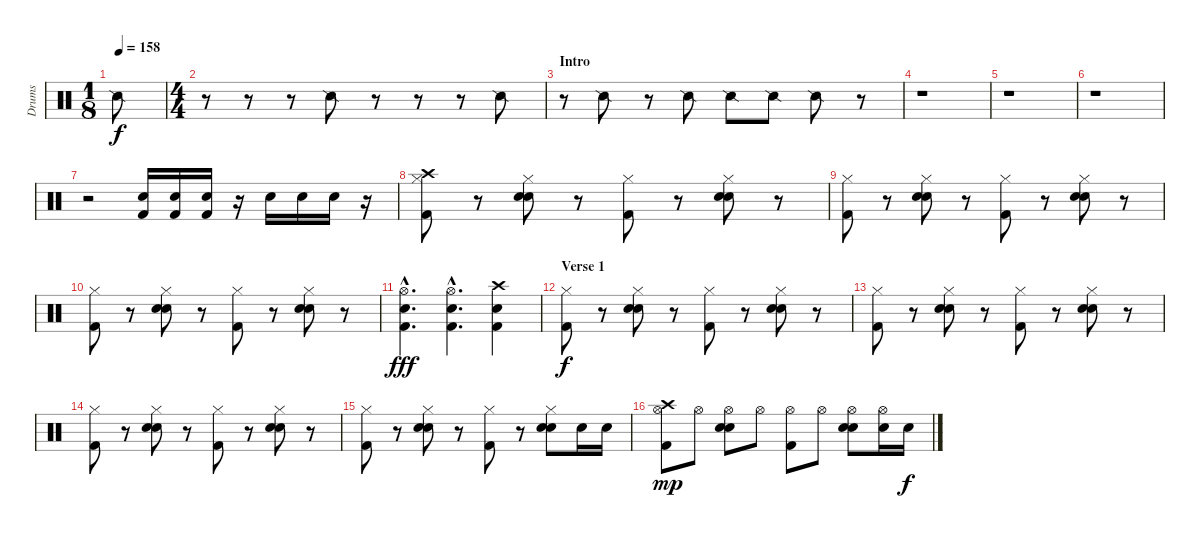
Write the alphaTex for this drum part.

\track ("Drums" "Drums") {instrument percussion}
\staff {score}
\articulation defaults
\ts (1 8)
\tempo 158
\clef neutral
\ks c "Snare (side stick) 2".8{dy f}
|
\ts (4 4)
r.8 r.8 r.8 "Snare (side stick) 2".8 r.8 r.8 r.8 "Snare (side stick) 2".8 |
\section ("" "Intro")
r.8 "Snare (side stick) 2".8 r.8 "Snare (side stick) 2".8 "Snare (side stick) 2".8 "Snare (side stick) 2".8 "Snare (side stick) 2".8 r.8 |
r.1 |
r.1 |
r.1 |
r.2 ("Snare (hit) 2" "Kick (hit) 2").16 ("Snare (hit) 2" "Kick (hit) 2").16 ("Snare (hit) 2" "Kick (hit) 2").16 r.16 "Electric Snare (hit)".16 "Electric Snare (hit)".16 "Electric Snare (hit)".16 r.16 |
("Hi-Hat (closed)" "Crash high (hit)" "Kick (hit) 2").8 r.8 ("Hi-Hat (closed)" "Electric Snare (hit)" "Snare (hit) 2").8 r.8 ("Hi-Hat (closed)" "Kick (hit) 2").8 r.8 ("Hi-Hat (closed)" "Electric Snare (hit)" "Snare (hit) 2").8 r.8 |
("Hi-Hat (closed)" "Kick (hit) 2").8 r.8 ("Hi-Hat (closed)" "Electric Snare (hit)" "Snare (hit) 2").8 r.8 ("Hi-Hat (closed)" "Kick (hit) 2").8 r.8 ("Hi-Hat (closed)" "Electric Snare (hit)" "Snare (hit) 2").8 r.8 |
("Hi-Hat (closed)" "Kick (hit) 2").8 r.8 ("Hi-Hat (closed)" "Electric Snare (hit)" "Snare (hit) 2").8 r.8 ("Hi-Hat (closed)" "Kick (hit) 2").8 r.8 ("Hi-Hat (closed)" "Electric Snare (hit)" "Snare (hit) 2").8 r.8 |
("Hi-Hat (open)"{hac} "Snare (hit) 2"{hac} "Kick (hit) 2"{hac}).4{d dy fff} ("Hi-Hat (open)"{hac} "Snare (hit) 2"{hac} "Kick (hit) 2"{hac}).4{d} ("Crash high (hit)" "Snare (hit) 2" "Kick (hit) 2").4 |
\section ("" "Verse 1")
("Hi-Hat (closed)" "Kick (hit) 2").8{dy f} r.8 ("Hi-Hat (closed)" "Electric Snare (hit)" "Snare (hit) 2").8 r.8 ("Hi-Hat (closed)" "Kick (hit) 2").8 r.8 ("Hi-Hat (closed)" "Electric Snare (hit)" "Snare (hit) 2").8 r.8 |
("Hi-Hat (closed)" "Kick (hit) 2").8 r.8 ("Hi-Hat (closed)" "Electric Snare (hit)" "Snare (hit) 2").8 r.8 ("Hi-Hat (closed)" "Kick (hit) 2").8 r.8 ("Hi-Hat (closed)" "Electric Snare (hit)" "Snare (hit) 2").8 r.8 |
("Hi-Hat (closed)" "Kick (hit) 2").8 r.8 ("Hi-Hat (closed)" "Electric Snare (hit)" "Snare (hit) 2").8 r.8 ("Hi-Hat (closed)" "Kick (hit) 2").8 r.8 ("Hi-Hat (closed)" "Electric Snare (hit)" "Snare (hit) 2").8 r.8 |
("Hi-Hat (closed)" "Kick (hit) 2").8 r.8 ("Hi-Hat (closed)" "Electric Snare (hit)" "Snare (hit) 2").8 r.8 ("Hi-Hat (closed)" "Kick (hit) 2").8 r.8 ("Hi-Hat (closed)" "Electric Snare (hit)" "Snare (hit) 2").8 "Snare (hit) 2".16 "Snare (hit) 2".16 |
("Hi-Hat (open)" "Crash high (hit)" "Kick (hit) 2").8{dy mp} "Hi-Hat (open)".8 ("Hi-Hat (open)" "Electric Snare (hit)" "Snare (hit) 2").8 "Hi-Hat (open)".8 ("Hi-Hat (open)" "Kick (hit) 2").8 "Hi-Hat (open)".8 ("Hi-Hat (open)" "Electric Snare (hit)" "Snare (hit) 2").8 ("Hi-Hat (open)" "Snare (hit) 2").16 "Snare (hit) 2".16{dy f}
